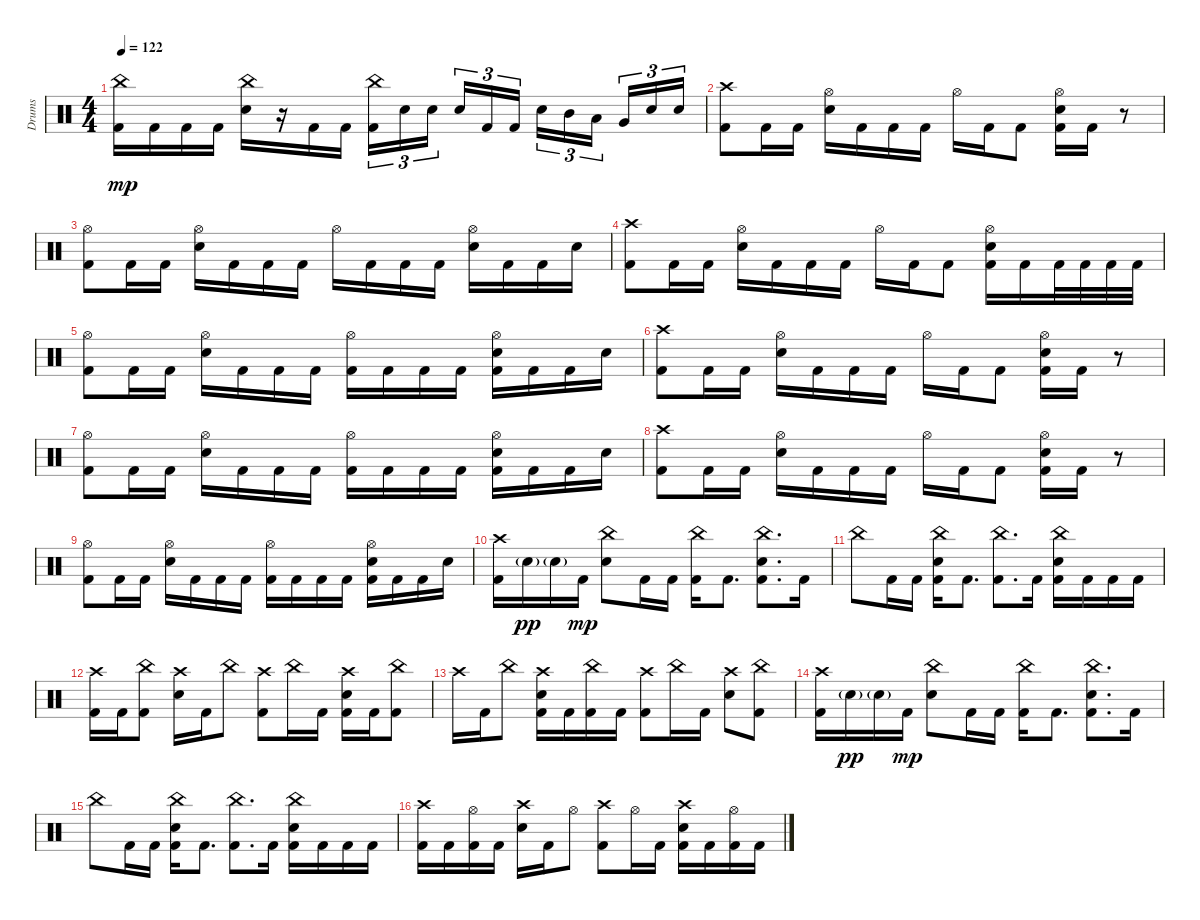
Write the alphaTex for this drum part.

\track ("Drums" "Drums") {instrument percussion}
\staff {score}
\articulation defaults
\ts (4 4)
\tempo 122
\clef neutral
\ks c
("China (hit)" "Kick (hit) 2").16{dy mp} "Kick (hit) 2".16 "Kick (hit) 2".16 "Kick (hit) 2".16 ("China (hit)" "Electric Snare (hit)").16 r.16 "Kick (hit) 2".16 "Kick (hit) 2".16 ("China (hit)" "Kick (hit) 2").16{tu (3 2)} "Electric Snare (hit)".16{tu (3 2)} "Electric Snare (hit)".16{tu (3 2) beam splitsecondary} "Electric Snare (hit)".16{tu (3 2)} "Kick (hit) 2".16{tu (3 2)} "Kick (hit) 2".16{tu (3 2)} "Electric Snare (hit)".16{tu (3 2)} "Mid Tom (hit)".16{tu (3 2)} "Low Tom (hit)".16{tu (3 2) beam splitsecondary} "Very Low Tom (hit)".16{tu (3 2)} "Electric Snare (hit)".16{tu (3 2)} "Electric Snare (hit)".16{tu (3 2)} |
("Crash high (hit)" "Kick (hit) 2").8 "Kick (hit) 2".16 "Kick (hit) 2".16 ("Hi-Hat (open)" "Electric Snare (hit)").16 "Kick (hit) 2".16 "Kick (hit) 2".16 "Kick (hit) 2".16 "Hi-Hat (open)".16 "Kick (hit) 2".16 "Kick (hit) 2".8 ("Hi-Hat (open)" "Electric Snare (hit)" "Kick (hit) 2").16 "Kick (hit) 2".16 r.8 |
("Hi-Hat (open)" "Kick (hit) 2").8 "Kick (hit) 2".16 "Kick (hit) 2".16 ("Hi-Hat (open)" "Electric Snare (hit)").16 "Kick (hit) 2".16 "Kick (hit) 2".16 "Kick (hit) 2".16 "Hi-Hat (open)".16 "Kick (hit) 2".16 "Kick (hit) 2".16 "Kick (hit) 2".16 ("Hi-Hat (open)" "Electric Snare (hit)").16 "Kick (hit) 2".16 "Kick (hit) 2".16 "Electric Snare (hit)".16 |
("Crash high (hit)" "Kick (hit) 2").8 "Kick (hit) 2".16 "Kick (hit) 2".16 ("Hi-Hat (open)" "Electric Snare (hit)").16 "Kick (hit) 2".16 "Kick (hit) 2".16 "Kick (hit) 2".16 "Hi-Hat (open)".16 "Kick (hit) 2".16 "Kick (hit) 2".8 ("Hi-Hat (open)" "Electric Snare (hit)" "Kick (hit) 2").16 "Kick (hit) 2".16 "Kick (hit) 2".32 "Kick (hit) 2".32 "Kick (hit) 2".32 "Kick (hit) 2".32 |
("Hi-Hat (open)" "Kick (hit) 2").8 "Kick (hit) 2".16 "Kick (hit) 2".16 ("Hi-Hat (open)" "Electric Snare (hit)").16 "Kick (hit) 2".16 "Kick (hit) 2".16 "Kick (hit) 2".16 ("Hi-Hat (open)" "Kick (hit) 2").16 "Kick (hit) 2".16 "Kick (hit) 2".16 "Kick (hit) 2".16 ("Hi-Hat (open)" "Electric Snare (hit)" "Kick (hit) 2").16 "Kick (hit) 2".16 "Kick (hit) 2".16 "Electric Snare (hit)".16 |
("Crash high (hit)" "Kick (hit) 2").8 "Kick (hit) 2".16 "Kick (hit) 2".16 ("Hi-Hat (open)" "Electric Snare (hit)").16 "Kick (hit) 2".16 "Kick (hit) 2".16 "Kick (hit) 2".16 "Hi-Hat (open)".16 "Kick (hit) 2".16 "Kick (hit) 2".8 ("Hi-Hat (open)" "Electric Snare (hit)" "Kick (hit) 2").16 "Kick (hit) 2".16 r.8 |
("Hi-Hat (open)" "Kick (hit) 2").8 "Kick (hit) 2".16 "Kick (hit) 2".16 ("Hi-Hat (open)" "Electric Snare (hit)").16 "Kick (hit) 2".16 "Kick (hit) 2".16 "Kick (hit) 2".16 ("Hi-Hat (open)" "Kick (hit) 2").16 "Kick (hit) 2".16 "Kick (hit) 2".16 "Kick (hit) 2".16 ("Hi-Hat (open)" "Electric Snare (hit)" "Kick (hit) 2").16 "Kick (hit) 2".16 "Kick (hit) 2".16 "Electric Snare (hit)".16 |
("Crash high (hit)" "Kick (hit) 2").8 "Kick (hit) 2".16 "Kick (hit) 2".16 ("Hi-Hat (open)" "Electric Snare (hit)").16 "Kick (hit) 2".16 "Kick (hit) 2".16 "Kick (hit) 2".16 "Hi-Hat (open)".16 "Kick (hit) 2".16 "Kick (hit) 2".8 ("Hi-Hat (open)" "Electric Snare (hit)" "Kick (hit) 2").16 "Kick (hit) 2".16 r.8 |
("Hi-Hat (open)" "Kick (hit) 2").8 "Kick (hit) 2".16 "Kick (hit) 2".16 ("Hi-Hat (open)" "Electric Snare (hit)").16 "Kick (hit) 2".16 "Kick (hit) 2".16 "Kick (hit) 2".16 ("Hi-Hat (open)" "Kick (hit) 2").16 "Kick (hit) 2".16 "Kick (hit) 2".16 "Kick (hit) 2".16 ("Hi-Hat (open)" "Electric Snare (hit)" "Kick (hit) 2").16 "Kick (hit) 2".16 "Kick (hit) 2".16 "Electric Snare (hit)".16 |
("Crash high (hit)" "Kick (hit) 2").16 "Electric Snare (hit)"{g}.16{dy pp} "Electric Snare (hit)"{g}.16 "Kick (hit) 2".16{dy mp} ("China (hit)" "Electric Snare (hit)").8 "Kick (hit) 2".16 "Kick (hit) 2".16 ("China (hit)" "Kick (hit) 2").16 "Kick (hit) 2".8{d} ("Electric Snare (hit)" "China (hit)" "Kick (hit) 2").8{d} "Kick (hit) 2".16 |
"China (hit)".8 "Kick (hit) 2".16 "Kick (hit) 2".16 ("China (hit)" "Electric Snare (hit)" "Kick (hit) 2").16 "Kick (hit) 2".8{d} ("China (hit)" "Kick (hit) 2").8{d} "Kick (hit) 2".16 ("China (hit)" "Electric Snare (hit)" "Kick (hit) 2").16 "Kick (hit) 2".16 "Kick (hit) 2".16 "Kick (hit) 2".16 |
("Crash high (hit)" "Kick (hit) 2").16 "Kick (hit) 2".16 ("China (hit)" "Kick (hit) 2").8 ("Crash high (hit)" "Electric Snare (hit)").16 "Kick (hit) 2".16 "China (hit)".8 ("Crash high (hit)" "Kick (hit) 2").8 "China (hit)".16 "Kick (hit) 2".16 ("Crash high (hit)" "Electric Snare (hit)" "Kick (hit) 2").16 "Kick (hit) 2".16 ("China (hit)" "Kick (hit) 2").8 |
"Crash high (hit)".16 "Kick (hit) 2".16 "China (hit)".8 ("Crash high (hit)" "Electric Snare (hit)" "Kick (hit) 2").16 "Kick (hit) 2".16 ("China (hit)" "Kick (hit) 2").16 "Kick (hit) 2".16 ("Crash high (hit)" "Kick (hit) 2").8 "China (hit)".16 "Kick (hit) 2".16 ("Crash high (hit)" "Electric Snare (hit)").8 ("China (hit)" "Kick (hit) 2").8 |
("Crash high (hit)" "Kick (hit) 2").16 "Electric Snare (hit)"{g}.16{dy pp} "Electric Snare (hit)"{g}.16 "Kick (hit) 2".16{dy mp} ("China (hit)" "Electric Snare (hit)").8 "Kick (hit) 2".16 "Kick (hit) 2".16 ("China (hit)" "Kick (hit) 2").16 "Kick (hit) 2".8{d} ("Electric Snare (hit)" "China (hit)" "Kick (hit) 2").8{d} "Kick (hit) 2".16 |
"China (hit)".8 "Kick (hit) 2".16 "Kick (hit) 2".16 ("China (hit)" "Electric Snare (hit)" "Kick (hit) 2").16 "Kick (hit) 2".8{d} ("China (hit)" "Kick (hit) 2").8{d} "Kick (hit) 2".16 ("China (hit)" "Electric Snare (hit)" "Kick (hit) 2").16 "Kick (hit) 2".16 "Kick (hit) 2".16 "Kick (hit) 2".16 |
("Crash high (hit)" "Kick (hit) 2").16 "Kick (hit) 2".16 ("Hi-Hat (open)" "Kick (hit) 2").16 "Kick (hit) 2".16 ("Crash high (hit)" "Electric Snare (hit)").16 "Kick (hit) 2".16 "Hi-Hat (open)".8 ("Crash high (hit)" "Kick (hit) 2").8 "Hi-Hat (open)".16 "Kick (hit) 2".16 ("Crash high (hit)" "Electric Snare (hit)" "Kick (hit) 2").16 "Kick (hit) 2".16 ("Hi-Hat (open)" "Kick (hit) 2").16 "Kick (hit) 2".16
